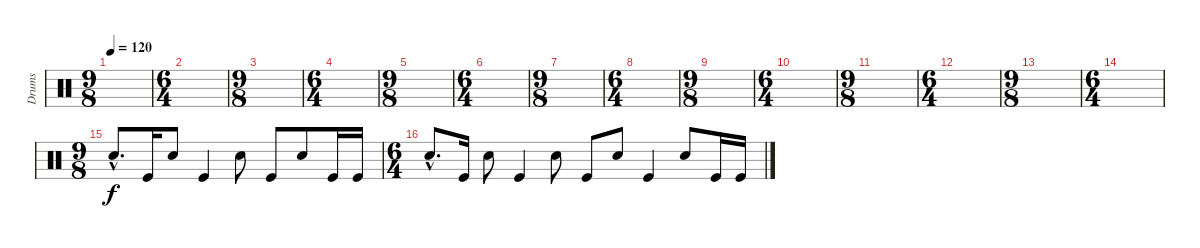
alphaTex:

\track ("Drums" "Drums") {instrument percussion}
\staff {score}
\articulation defaults
\ts (9 8)
\tempo 120
\clef neutral
\ks c
|
\ts (6 4)
|
\ts (9 8)
|
\ts (6 4)
|
\ts (9 8)
|
\ts (6 4)
|
\ts (9 8)
|
\ts (6 4)
|
\ts (9 8)
|
\ts (6 4)
|
\ts (9 8)
|
\ts (6 4)
|
\ts (9 8)
|
\ts (6 4)
|
\ts (9 8)
"Hand Clap (hit)"{hac}.8{d} "Kick (hit)".16 "Hand Clap (hit)".8 "Kick (hit)".4 "Hand Clap (hit)".8 "Kick (hit)".8 "Hand Clap (hit)".8 "Kick (hit)".16 "Kick (hit)".16 |
\ts (6 4)
"Hand Clap (hit)"{hac}.8{d} "Kick (hit)".16 "Hand Clap (hit)".8 "Kick (hit)".4 "Hand Clap (hit)".8 "Kick (hit)".8 "Hand Clap (hit)".8 "Kick (hit)".4 "Hand Clap (hit)".8 "Kick (hit)".16 "Kick (hit)".16
